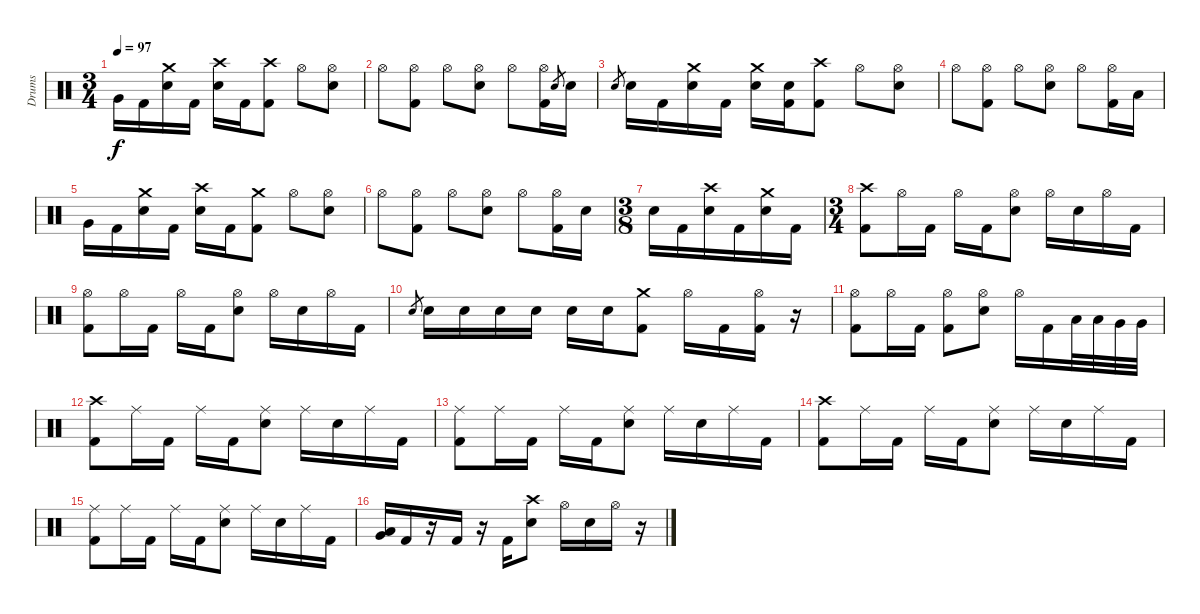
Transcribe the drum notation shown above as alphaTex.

\track ("Drums" "Drums") {instrument percussion}
\staff {score}
\articulation defaults
\ts (3 4)
\tempo 97
\clef neutral
\ks c "Very Low Tom (hit)".16{dy f} "Kick (hit) 2".16
("Crash medium (hit)" "Electric Snare (hit)").16 "Kick (hit) 2".16 ("Crash high (hit)" "Electric Snare (hit)").16 "Kick (hit) 2".16 ("Crash high (hit)" "Kick (hit) 2").8 "Hi-Hat (open)".8 ("Hi-Hat (open)" "Electric Snare (hit)").8 |
"Hi-Hat (open)".8 ("Hi-Hat (open)" "Kick (hit) 2").8 "Hi-Hat (open)".8 ("Hi-Hat (open)" "Electric Snare (hit)").8 "Hi-Hat (open)".8 ("Hi-Hat (open)" "Kick (hit) 2").16 "Electric Snare (hit)".8{gr} "Electric Snare (hit)".16 |
"Electric Snare (hit)".8{gr} "Electric Snare (hit)".16 "Kick (hit) 2".16 ("Crash medium (hit)" "Electric Snare (hit)").16 "Kick (hit) 2".16 ("Crash medium (hit)" "Electric Snare (hit)").16 ("Electric Snare (hit)" "Kick (hit) 2").16 ("Crash high (hit)" "Kick (hit) 2").8 "Hi-Hat (open)".8 ("Hi-Hat (open)" "Electric Snare (hit)").8 |
"Hi-Hat (open)".8 ("Hi-Hat (open)" "Kick (hit) 2").8 "Hi-Hat (open)".8 ("Hi-Hat (open)" "Electric Snare (hit)").8 "Hi-Hat (open)".8 ("Hi-Hat (open)" "Kick (hit) 2").16 "Low Tom (hit)".16 |
"Very Low Tom (hit)".16 "Kick (hit) 2".16 ("Crash medium (hit)" "Electric Snare (hit)").16 "Kick (hit) 2".16 ("Crash high (hit)" "Electric Snare (hit)").16 "Kick (hit) 2".16 ("Crash medium (hit)" "Kick (hit) 2").8 "Hi-Hat (open)".8 ("Hi-Hat (open)" "Electric Snare (hit)").8 |
"Hi-Hat (open)".8 ("Hi-Hat (open)" "Kick (hit) 2").8 "Hi-Hat (open)".8 ("Hi-Hat (open)" "Electric Snare (hit)").8 "Hi-Hat (open)".8 ("Hi-Hat (open)" "Kick (hit) 2").16 "Electric Snare (hit)".16 |
\ts (3 8)
"Electric Snare (hit)".16 "Kick (hit) 2".16 ("Crash high (hit)" "Electric Snare (hit)").16 "Kick (hit) 2".16 ("Crash medium (hit)" "Electric Snare (hit)").16 "Kick (hit) 2".16 |
\ts (3 4)
("Crash high (hit)" "Kick (hit) 2").8 "Hi-Hat (open)".16 "Kick (hit) 2".16 "Hi-Hat (open)".16 "Kick (hit) 2".16 ("Hi-Hat (open)" "Electric Snare (hit)").8 "Hi-Hat (open)".16 "Electric Snare (hit)".16 "Hi-Hat (open)".16 "Kick (hit) 2".16 |
("Hi-Hat (open)" "Kick (hit) 2").8 "Hi-Hat (open)".16 "Kick (hit) 2".16 "Hi-Hat (open)".16 "Kick (hit) 2".16 ("Hi-Hat (open)" "Electric Snare (hit)").8 "Hi-Hat (open)".16 "Electric Snare (hit)".16 "Hi-Hat (open)".16 "Kick (hit) 2".16 |
"Electric Snare (hit)".8{gr} "Electric Snare (hit)".16 "Electric Snare (hit)".16 "Electric Snare (hit)".16 "Electric Snare (hit)".16 "Electric Snare (hit)".16 "Electric Snare (hit)".16 ("Crash medium (hit)" "Kick (hit) 2").8 "Hi-Hat (open)".16 "Kick (hit) 2".16 ("Hi-Hat (open)" "Kick (hit) 2").16 r.16 |
("Hi-Hat (open)" "Kick (hit) 2").8 "Hi-Hat (open)".16 "Kick (hit) 2".16 ("Hi-Hat (open)" "Kick (hit) 2").8 ("Hi-Hat (open)" "Electric Snare (hit)").8 "Hi-Hat (open)".16 "Kick (hit) 2".16 "Low Tom (hit)".32 "Low Tom (hit)".32 "Very Low Tom (hit)".32 "Very Low Tom (hit)".32 |
("Crash high (hit)" "Kick (hit) 2").8 "Ride (middle)".16 "Kick (hit) 2".16 "Ride (middle)".16 "Kick (hit) 2".16 ("Ride (middle)" "Electric Snare (hit)").8 "Ride (middle)".16 "Electric Snare (hit)".16 "Ride (middle)".16 "Kick (hit) 2".16 |
("Ride (middle)" "Kick (hit) 2").8 "Ride (middle)".16 "Kick (hit) 2".16 "Ride (middle)".16 "Kick (hit) 2".16 ("Ride (middle)" "Electric Snare (hit)").8 "Ride (middle)".16 "Electric Snare (hit)".16 "Ride (middle)".16 "Kick (hit) 2".16 |
("Crash high (hit)" "Kick (hit) 2").8 "Ride (middle)".16 "Kick (hit) 2".16 "Ride (middle)".16 "Kick (hit) 2".16 ("Ride (middle)" "Electric Snare (hit)").8 "Ride (middle)".16 "Electric Snare (hit)".16 "Ride (middle)".16 "Kick (hit) 2".16 |
("Ride (middle)" "Kick (hit) 2").8 "Ride (middle)".16 "Kick (hit) 2".16 "Ride (middle)".16 "Kick (hit) 2".16 ("Ride (middle)" "Electric Snare (hit)").8 "Ride (middle)".16 "Electric Snare (hit)".16 "Ride (middle)".16 "Kick (hit) 2".16 |
("Low Tom (hit)" "Very Low Tom (hit)").16 "Kick (hit) 2".16 r.16 "Kick (hit) 2".16 r.16 "Kick (hit) 2".16 ("Crash high (hit)" "Electric Snare (hit)").8 "Hi-Hat (open)".16 "Electric Snare (hit)".16 "Hi-Hat (open)".16 r.16
